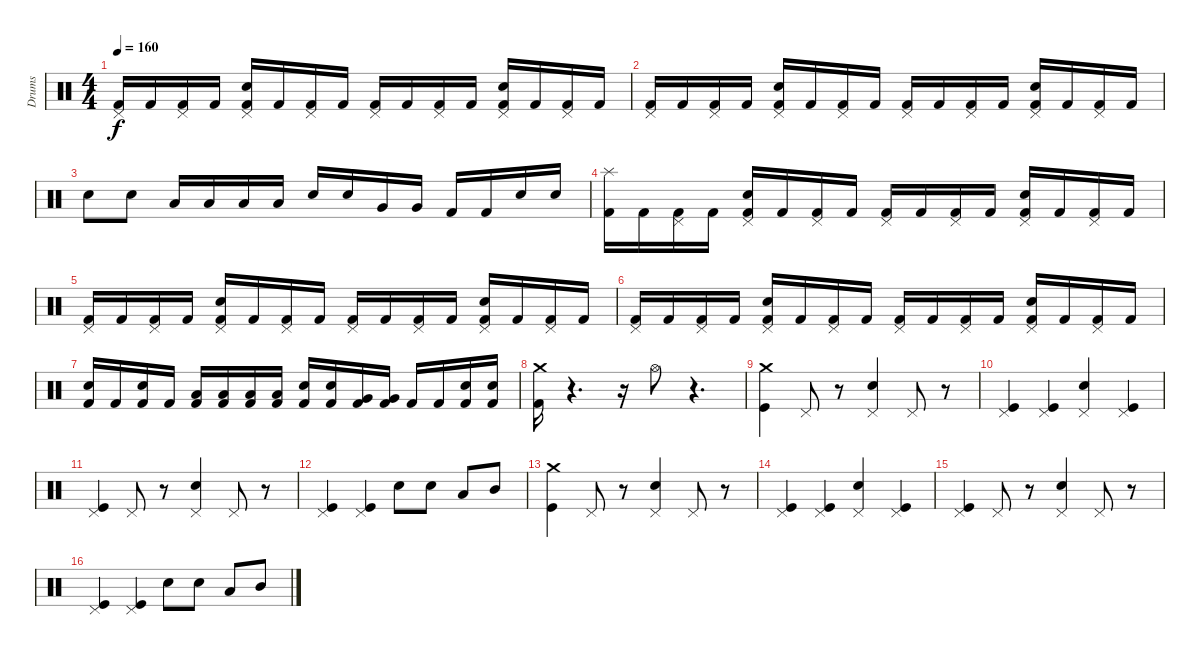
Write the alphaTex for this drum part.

\track ("Drums" "Drums") {instrument percussion}
\staff {score}
\articulation defaults
\ts (4 4)
\tempo 160
\clef neutral
\ks c
("Pedal Hi-Hat (hit)" "Kick (hit) 2").16{dy f} "Kick (hit) 2".16 ("Pedal Hi-Hat (hit)" "Kick (hit) 2").16 "Kick (hit) 2".16 ("Pedal Hi-Hat (hit)" "Electric Snare (hit)" "Kick (hit) 2").16 "Kick (hit) 2".16 ("Pedal Hi-Hat (hit)" "Kick (hit) 2").16 "Kick (hit) 2".16 ("Pedal Hi-Hat (hit)" "Kick (hit) 2").16 "Kick (hit) 2".16 ("Pedal Hi-Hat (hit)" "Kick (hit) 2").16 "Kick (hit) 2".16 ("Pedal Hi-Hat (hit)" "Electric Snare (hit)" "Kick (hit) 2").16 "Kick (hit) 2".16 ("Pedal Hi-Hat (hit)" "Kick (hit) 2").16 "Kick (hit) 2".16 |
("Pedal Hi-Hat (hit)" "Kick (hit) 2").16 "Kick (hit) 2".16 ("Pedal Hi-Hat (hit)" "Kick (hit) 2").16 "Kick (hit) 2".16 ("Pedal Hi-Hat (hit)" "Electric Snare (hit)" "Kick (hit) 2").16 "Kick (hit) 2".16 ("Pedal Hi-Hat (hit)" "Kick (hit) 2").16 "Kick (hit) 2".16 ("Pedal Hi-Hat (hit)" "Kick (hit) 2").16 "Kick (hit) 2".16 ("Pedal Hi-Hat (hit)" "Kick (hit) 2").16 "Kick (hit) 2".16 ("Pedal Hi-Hat (hit)" "Electric Snare (hit)" "Kick (hit) 2").16 "Kick (hit) 2".16 ("Pedal Hi-Hat (hit)" "Kick (hit) 2").16 "Kick (hit) 2".16 |
"Electric Snare (hit)".8 "Electric Snare (hit)".8 "Low Tom (hit)".16 "Low Tom (hit)".16 "Low Tom (hit)".16 "Low Tom (hit)".16 "Electric Snare (hit)".16 "Electric Snare (hit)".16 "Very Low Tom (hit)".16 "Very Low Tom (hit)".16 "Kick (hit) 2".16 "Kick (hit) 2".16 "Electric Snare (hit)".16 "Electric Snare (hit)".16 |
("Splash (hit)" "Kick (hit) 2").16 "Kick (hit) 2".16 ("Pedal Hi-Hat (hit)" "Kick (hit) 2").16 "Kick (hit) 2".16 ("Pedal Hi-Hat (hit)" "Electric Snare (hit)" "Kick (hit) 2").16 "Kick (hit) 2".16 ("Pedal Hi-Hat (hit)" "Kick (hit) 2").16 "Kick (hit) 2".16 ("Pedal Hi-Hat (hit)" "Kick (hit) 2").16 "Kick (hit) 2".16 ("Pedal Hi-Hat (hit)" "Kick (hit) 2").16 "Kick (hit) 2".16 ("Pedal Hi-Hat (hit)" "Electric Snare (hit)" "Kick (hit) 2").16 "Kick (hit) 2".16 ("Pedal Hi-Hat (hit)" "Kick (hit) 2").16 "Kick (hit) 2".16 |
("Pedal Hi-Hat (hit)" "Kick (hit) 2").16 "Kick (hit) 2".16 ("Pedal Hi-Hat (hit)" "Kick (hit) 2").16 "Kick (hit) 2".16 ("Pedal Hi-Hat (hit)" "Electric Snare (hit)" "Kick (hit) 2").16 "Kick (hit) 2".16 ("Pedal Hi-Hat (hit)" "Kick (hit) 2").16 "Kick (hit) 2".16 ("Pedal Hi-Hat (hit)" "Kick (hit) 2").16 "Kick (hit) 2".16 ("Pedal Hi-Hat (hit)" "Kick (hit) 2").16 "Kick (hit) 2".16 ("Pedal Hi-Hat (hit)" "Electric Snare (hit)" "Kick (hit) 2").16 "Kick (hit) 2".16 ("Pedal Hi-Hat (hit)" "Kick (hit) 2").16 "Kick (hit) 2".16 |
("Pedal Hi-Hat (hit)" "Kick (hit) 2").16 "Kick (hit) 2".16 ("Pedal Hi-Hat (hit)" "Kick (hit) 2").16 "Kick (hit) 2".16 ("Pedal Hi-Hat (hit)" "Electric Snare (hit)" "Kick (hit) 2").16 "Kick (hit) 2".16 ("Pedal Hi-Hat (hit)" "Kick (hit) 2").16 "Kick (hit) 2".16 ("Pedal Hi-Hat (hit)" "Kick (hit) 2").16 "Kick (hit) 2".16 ("Pedal Hi-Hat (hit)" "Kick (hit) 2").16 "Kick (hit) 2".16 ("Pedal Hi-Hat (hit)" "Electric Snare (hit)" "Kick (hit) 2").16 "Kick (hit) 2".16 ("Pedal Hi-Hat (hit)" "Kick (hit) 2").16 "Kick (hit) 2".16 |
("Electric Snare (hit)" "Kick (hit) 2").16 "Kick (hit) 2".16 ("Electric Snare (hit)" "Kick (hit) 2").16 "Kick (hit) 2".16 ("Low Tom (hit)" "Kick (hit) 2").16 ("Low Tom (hit)" "Kick (hit) 2").16 ("Low Tom (hit)" "Kick (hit) 2").16 ("Low Tom (hit)" "Kick (hit) 2").16 ("Electric Snare (hit)" "Kick (hit) 2").16 ("Electric Snare (hit)" "Kick (hit) 2").16 ("Very Low Tom (hit)" "Kick (hit) 2").16 ("Very Low Tom (hit)" "Kick (hit) 2").16 "Kick (hit) 2".16 "Kick (hit) 2".16 ("Electric Snare (hit)" "Kick (hit) 2").16 ("Electric Snare (hit)" "Kick (hit) 2").16 |
("Crash medium (hit)" "Kick (hit) 2").16 r.4{d} r.16 "Hi-Hat (open)".8 r.4{d} |
("Crash medium (hit)" "Kick (hit)").4 "Pedal Hi-Hat (hit)".8 r.8 ("Pedal Hi-Hat (hit)" "Electric Snare (hit)").4 "Pedal Hi-Hat (hit)".8 r.8 |
("Pedal Hi-Hat (hit)" "Kick (hit)").4 ("Pedal Hi-Hat (hit)" "Kick (hit)").4 ("Pedal Hi-Hat (hit)" "Electric Snare (hit)").4 ("Pedal Hi-Hat (hit)" "Kick (hit)").4 |
("Pedal Hi-Hat (hit)" "Kick (hit)").4 "Pedal Hi-Hat (hit)".8 r.8 ("Pedal Hi-Hat (hit)" "Electric Snare (hit)").4 "Pedal Hi-Hat (hit)".8 r.8 |
("Pedal Hi-Hat (hit)" "Kick (hit)").4 ("Pedal Hi-Hat (hit)" "Kick (hit)").4 "Electric Snare (hit)".8 "Electric Snare (hit)".8 "Low Tom (hit)".8 "Mid Tom (hit)".8 |
("Crash medium (hit)" "Kick (hit)").4 "Pedal Hi-Hat (hit)".8 r.8 ("Pedal Hi-Hat (hit)" "Electric Snare (hit)").4 "Pedal Hi-Hat (hit)".8 r.8 |
("Pedal Hi-Hat (hit)" "Kick (hit)").4 ("Pedal Hi-Hat (hit)" "Kick (hit)").4 ("Pedal Hi-Hat (hit)" "Electric Snare (hit)").4 ("Pedal Hi-Hat (hit)" "Kick (hit)").4 |
("Pedal Hi-Hat (hit)" "Kick (hit)").4 "Pedal Hi-Hat (hit)".8 r.8 ("Pedal Hi-Hat (hit)" "Electric Snare (hit)").4 "Pedal Hi-Hat (hit)".8 r.8 |
("Pedal Hi-Hat (hit)" "Kick (hit)").4 ("Pedal Hi-Hat (hit)" "Kick (hit)").4 "Electric Snare (hit)".8 "Electric Snare (hit)".8 "Low Tom (hit)".8 "Mid Tom (hit)".8
